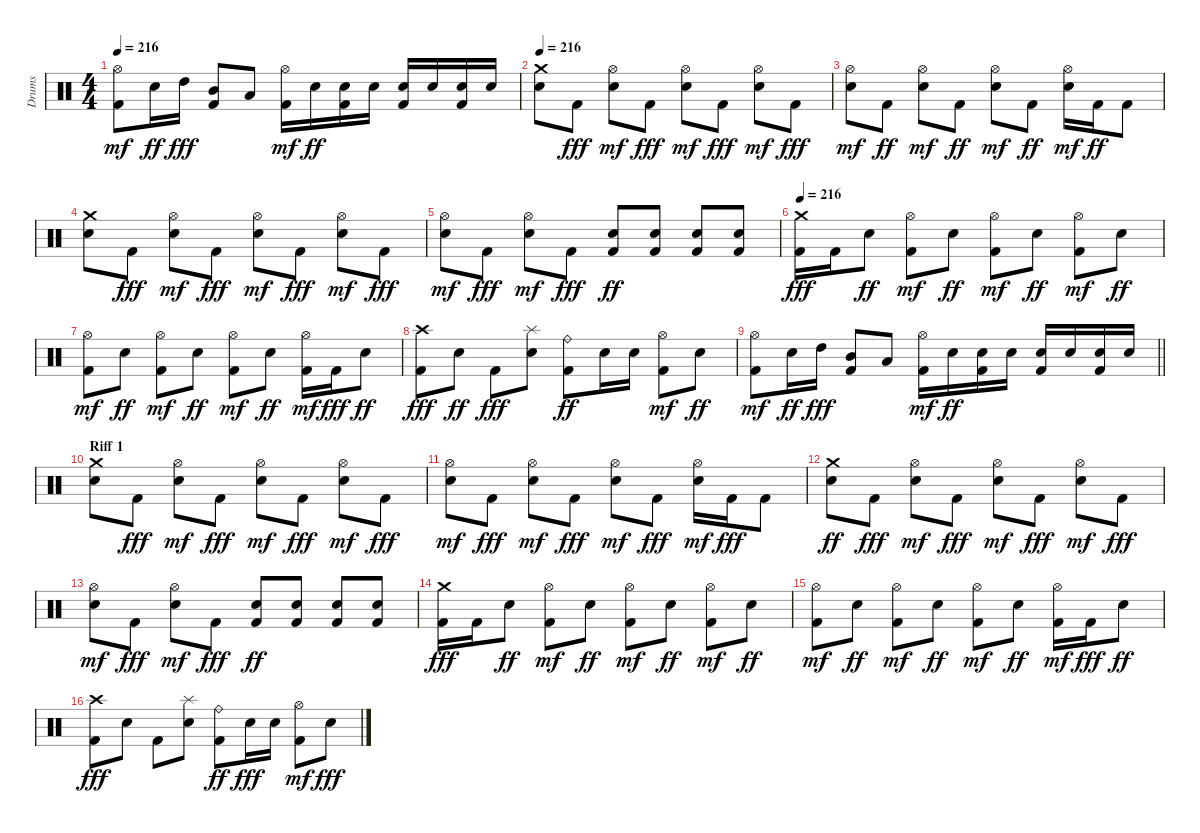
\track ("Drums" "Drums") {instrument percussion}
\staff {score}
\articulation defaults
\ts (4 4)
\tempo 216
\clef neutral
\ks c
("Kick (hit) 2" "Hi-Hat (open)").8{dy mf} "Snare (hit) 2".16{dy ff} "High Tom (hit)".16{dy fff} ("Kick (hit) 2" "Mid Tom (hit)").8 "Low Tom (hit)".8 ("Kick (hit) 2" "Hi-Hat (open)").16{dy mf} "Snare (hit) 2".16{dy ff} ("Kick (hit) 2" "Snare (hit) 2").16 "Snare (hit) 2".16 ("Kick (hit) 2" "Snare (hit) 2").16 "Snare (hit) 2".16 ("Kick (hit) 2" "Snare (hit) 2").16 "Snare (hit) 2".16 |
\tempo 216
("Snare (hit) 2" "Crash medium (hit)").8 "Kick (hit) 2".8{dy fff} ("Snare (hit) 2" "Hi-Hat (open)").8{dy mf} "Kick (hit) 2".8{dy fff} ("Snare (hit) 2" "Hi-Hat (open)").8{dy mf} "Kick (hit) 2".8{dy fff} ("Snare (hit) 2" "Hi-Hat (open)").8{dy mf} "Kick (hit) 2".8{dy fff} |
("Snare (hit) 2" "Hi-Hat (open)").8{dy mf} "Kick (hit) 2".8{dy ff} ("Snare (hit) 2" "Hi-Hat (open)").8{dy mf} "Kick (hit) 2".8{dy ff} ("Snare (hit) 2" "Hi-Hat (open)").8{dy mf} "Kick (hit) 2".8{dy ff} ("Snare (hit) 2" "Hi-Hat (open)").16{dy mf} "Kick (hit) 2".16{dy ff} "Kick (hit) 2".8 |
("Snare (hit) 2" "Crash medium (hit)").8 "Kick (hit) 2".8{dy fff} ("Snare (hit) 2" "Hi-Hat (open)").8{dy mf} "Kick (hit) 2".8{dy fff} ("Snare (hit) 2" "Hi-Hat (open)").8{dy mf} "Kick (hit) 2".8{dy fff} ("Snare (hit) 2" "Hi-Hat (open)").8{dy mf} "Kick (hit) 2".8{dy fff} |
("Snare (hit) 2" "Hi-Hat (open)").8{dy mf} "Kick (hit) 2".8{dy fff} ("Snare (hit) 2" "Hi-Hat (open)").8{dy mf} "Kick (hit) 2".8{dy fff} ("Kick (hit) 2" "Snare (hit) 2").8{dy ff} ("Kick (hit) 2" "Snare (hit) 2").8 ("Kick (hit) 2" "Snare (hit) 2").8 ("Kick (hit) 2" "Snare (hit) 2").8 |
\tempo 216
("Kick (hit) 2" "Crash medium (hit)").16{dy fff} "Kick (hit) 2".16 "Snare (hit) 2".8{dy ff} ("Kick (hit) 2" "Hi-Hat (open)").8{dy mf} "Snare (hit) 2".8{dy ff} ("Kick (hit) 2" "Hi-Hat (open)").8{dy mf} "Snare (hit) 2".8{dy ff} ("Kick (hit) 2" "Hi-Hat (open)").8{dy mf} "Snare (hit) 2".8{dy ff} |
("Kick (hit) 2" "Hi-Hat (open)").8{dy mf} "Snare (hit) 2".8{dy ff} ("Kick (hit) 2" "Hi-Hat (open)").8{dy mf} "Snare (hit) 2".8{dy ff} ("Kick (hit) 2" "Hi-Hat (open)").8{dy mf} "Snare (hit) 2".8{dy ff} ("Kick (hit) 2" "Hi-Hat (open)").16{dy mf} "Kick (hit) 2".16{dy fff} "Snare (hit) 2".8{dy ff} |
("Kick (hit) 2" "Crash high (hit)").8{dy fff} "Snare (hit) 2".8{dy ff} "Kick (hit) 2".8{dy fff} ("Snare (hit) 2" "Splash (hit)").8 ("Kick (hit) 2" "Ride (bell)").8{dy ff} "Snare (hit) 2".16 "Snare (hit) 2".16 ("Kick (hit) 2" "Hi-Hat (open)").8{dy mf} "Snare (hit) 2".8{dy ff} |
\barLineRight lightlight
("Kick (hit) 2" "Hi-Hat (open)").8{dy mf} "Snare (hit) 2".16{dy ff} "High Tom (hit)".16{dy fff} ("Kick (hit) 2" "Mid Tom (hit)").8 "Low Tom (hit)".8 ("Kick (hit) 2" "Hi-Hat (open)").16{dy mf} "Snare (hit) 2".16{dy ff} ("Kick (hit) 2" "Snare (hit) 2").16 "Snare (hit) 2".16 ("Kick (hit) 2" "Snare (hit) 2").16 "Snare (hit) 2".16 ("Kick (hit) 2" "Snare (hit) 2").16 "Snare (hit) 2".16 |
\section ("" "Riff 1")
("Snare (hit) 2" "Crash medium (hit)").8 "Kick (hit) 2".8{dy fff} ("Snare (hit) 2" "Hi-Hat (open)").8{dy mf} "Kick (hit) 2".8{dy fff} ("Snare (hit) 2" "Hi-Hat (open)").8{dy mf} "Kick (hit) 2".8{dy fff} ("Snare (hit) 2" "Hi-Hat (open)").8{dy mf} "Kick (hit) 2".8{dy fff} |
("Snare (hit) 2" "Hi-Hat (open)").8{dy mf} "Kick (hit) 2".8{dy fff} ("Snare (hit) 2" "Hi-Hat (open)").8{dy mf} "Kick (hit) 2".8{dy fff} ("Snare (hit) 2" "Hi-Hat (open)").8{dy mf} "Kick (hit) 2".8{dy fff} ("Snare (hit) 2" "Hi-Hat (open)").16{dy mf} "Kick (hit) 2".16{dy fff} "Kick (hit) 2".8 |
("Snare (hit) 2" "Crash medium (hit)").8{dy ff} "Kick (hit) 2".8{dy fff} ("Snare (hit) 2" "Hi-Hat (open)").8{dy mf} "Kick (hit) 2".8{dy fff} ("Snare (hit) 2" "Hi-Hat (open)").8{dy mf} "Kick (hit) 2".8{dy fff} ("Snare (hit) 2" "Hi-Hat (open)").8{dy mf} "Kick (hit) 2".8{dy fff} |
("Snare (hit) 2" "Hi-Hat (open)").8{dy mf} "Kick (hit) 2".8{dy fff} ("Snare (hit) 2" "Hi-Hat (open)").8{dy mf} "Kick (hit) 2".8{dy fff} ("Kick (hit) 2" "Snare (hit) 2").8{dy ff} ("Kick (hit) 2" "Snare (hit) 2").8 ("Kick (hit) 2" "Snare (hit) 2").8 ("Kick (hit) 2" "Snare (hit) 2").8 |
("Kick (hit) 2" "Crash medium (hit)").16{dy fff} "Kick (hit) 2".16 "Snare (hit) 2".8{dy ff} ("Kick (hit) 2" "Hi-Hat (open)").8{dy mf} "Snare (hit) 2".8{dy ff} ("Kick (hit) 2" "Hi-Hat (open)").8{dy mf} "Snare (hit) 2".8{dy ff} ("Kick (hit) 2" "Hi-Hat (open)").8{dy mf} "Snare (hit) 2".8{dy ff} |
("Kick (hit) 2" "Hi-Hat (open)").8{dy mf} "Snare (hit) 2".8{dy ff} ("Kick (hit) 2" "Hi-Hat (open)").8{dy mf} "Snare (hit) 2".8{dy ff} ("Kick (hit) 2" "Hi-Hat (open)").8{dy mf} "Snare (hit) 2".8{dy ff} ("Kick (hit) 2" "Hi-Hat (open)").16{dy mf} "Kick (hit) 2".16{dy fff} "Snare (hit) 2".8{dy ff} |
("Kick (hit) 2" "Crash high (hit)").8{dy fff} "Snare (hit) 2".8 "Kick (hit) 2".8 ("Snare (hit) 2" "Splash (hit)").8 ("Kick (hit) 2" "Ride (bell)").8{dy ff} "Snare (hit) 2".16{dy fff} "Snare (hit) 2".16 ("Kick (hit) 2" "Hi-Hat (open)").8{dy mf} "Snare (hit) 2".8{dy fff}
